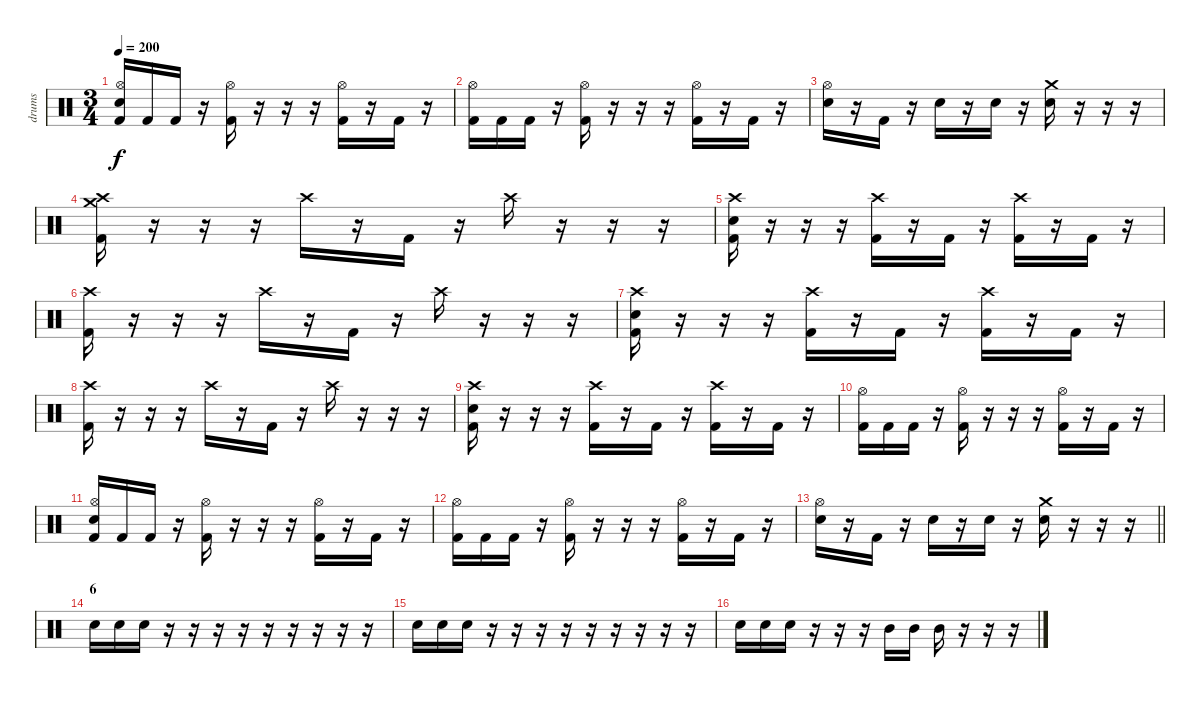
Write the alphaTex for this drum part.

\track ("drums" "drums") {instrument percussion}
\staff {score}
\articulation defaults
\ts (3 4)
\tempo 200
\clef neutral
\ks c
("Kick (hit) 2" "Hi-Hat (open)" "Electric Snare (hit)").16{dy f} "Kick (hit) 2".16 "Kick (hit) 2".16 r.16 ("Hi-Hat (open)" "Kick (hit) 2").16 r.16 r.16 r.16 ("Hi-Hat (open)" "Kick (hit) 2").16 r.16 "Kick (hit) 2".16 r.16 |
("Kick (hit) 2" "Hi-Hat (open)").16 "Kick (hit) 2".16 "Kick (hit) 2".16 r.16 ("Hi-Hat (open)" "Kick (hit) 2").16 r.16 r.16 r.16 ("Hi-Hat (open)" "Kick (hit) 2").16 r.16 "Kick (hit) 2".16 r.16 |
("Electric Snare (hit)" "Hi-Hat (open)").16 r.16 "Kick (hit) 2".16 r.16 "Electric Snare (hit)".16 r.16 "Electric Snare (hit)".16 r.16 ("Crash medium (hit)" "Electric Snare (hit)").16 r.16 r.16 r.16 |
("Kick (hit) 2" "Crash high (hit)" "Crash medium (hit)").16 r.16 r.16 r.16 "Crash high (hit)".16 r.16 "Kick (hit) 2".16 r.16 "Crash high (hit)".16 r.16 r.16 r.16 |
("Crash high (hit)" "Electric Snare (hit)" "Kick (hit) 2").16 r.16 r.16 r.16 ("Crash high (hit)" "Kick (hit) 2").16 r.16 "Kick (hit) 2".16 r.16 ("Crash high (hit)" "Kick (hit) 2").16 r.16 "Kick (hit) 2".16 r.16 |
("Kick (hit) 2" "Crash high (hit)").16 r.16 r.16 r.16 "Crash high (hit)".16 r.16 "Kick (hit) 2".16 r.16 "Crash high (hit)".16 r.16 r.16 r.16 |
("Crash high (hit)" "Electric Snare (hit)" "Kick (hit) 2").16 r.16 r.16 r.16 ("Crash high (hit)" "Kick (hit) 2").16 r.16 "Kick (hit) 2".16 r.16 ("Crash high (hit)" "Kick (hit) 2").16 r.16 "Kick (hit) 2".16 r.16 |
("Kick (hit) 2" "Crash high (hit)").16 r.16 r.16 r.16 "Crash high (hit)".16 r.16 "Kick (hit) 2".16 r.16 "Crash high (hit)".16 r.16 r.16 r.16 |
("Crash high (hit)" "Electric Snare (hit)" "Kick (hit) 2").16 r.16 r.16 r.16 ("Crash high (hit)" "Kick (hit) 2").16 r.16 "Kick (hit) 2".16 r.16 ("Crash high (hit)" "Kick (hit) 2").16 r.16 "Kick (hit) 2".16 r.16 |
("Kick (hit) 2" "Hi-Hat (open)").16 "Kick (hit) 2".16 "Kick (hit) 2".16 r.16 ("Hi-Hat (open)" "Kick (hit) 2").16 r.16 r.16 r.16 ("Hi-Hat (open)" "Kick (hit) 2").16 r.16 "Kick (hit) 2".16 r.16 |
("Kick (hit) 2" "Hi-Hat (open)" "Electric Snare (hit)").16 "Kick (hit) 2".16 "Kick (hit) 2".16 r.16 ("Hi-Hat (open)" "Kick (hit) 2").16 r.16 r.16 r.16 ("Hi-Hat (open)" "Kick (hit) 2").16 r.16 "Kick (hit) 2".16 r.16 |
("Kick (hit) 2" "Hi-Hat (open)").16 "Kick (hit) 2".16 "Kick (hit) 2".16 r.16 ("Hi-Hat (open)" "Kick (hit) 2").16 r.16 r.16 r.16 ("Hi-Hat (open)" "Kick (hit) 2").16 r.16 "Kick (hit) 2".16 r.16 |
\barLineRight lightlight
("Electric Snare (hit)" "Hi-Hat (open)").16 r.16 "Kick (hit) 2".16 r.16 "Electric Snare (hit)".16 r.16 "Electric Snare (hit)".16 r.16 ("Crash medium (hit)" "Electric Snare (hit)").16 r.16 r.16 r.16 |
\section ("" "6")
"Electric Snare (hit)".16 "Electric Snare (hit)".16 "Electric Snare (hit)".16 r.16 r.16 r.16 r.16 r.16 r.16 r.16 r.16 r.16 |
"Electric Snare (hit)".16 "Electric Snare (hit)".16 "Electric Snare (hit)".16 r.16 r.16 r.16 r.16 r.16 r.16 r.16 r.16 r.16 |
"Electric Snare (hit)".16 "Electric Snare (hit)".16 "Electric Snare (hit)".16 r.16 r.16 r.16 "Mid Tom (hit)".16 "Mid Tom (hit)".16 "Mid Tom (hit)".16 r.16 r.16 r.16
